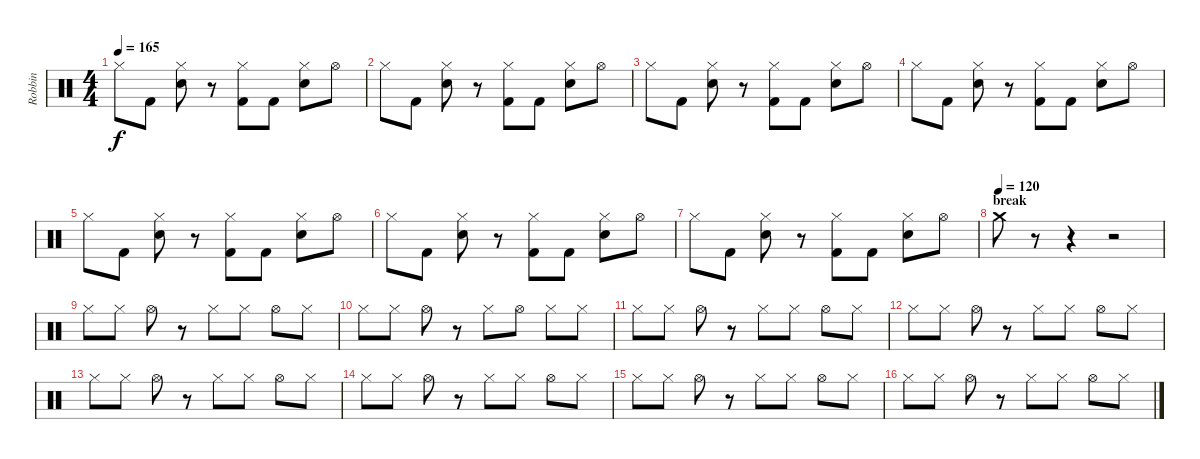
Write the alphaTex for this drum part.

\track ("Robbin" "Robbin") {instrument percussion}
\staff {score}
\articulation defaults
\ts (4 4)
\tempo 165
\clef neutral
\ks c "Hi-Hat (closed)".8{dy f} "Kick (hit) 2".8
("Hi-Hat (closed)" "Snare (hit) 2").8 r.8 ("Hi-Hat (closed)" "Kick (hit) 2").8 "Kick (hit) 2".8 ("Hi-Hat (closed)" "Snare (hit) 2").8 "Hi-Hat (open)".8 |
"Hi-Hat (closed)".8 "Kick (hit) 2".8 ("Hi-Hat (closed)" "Snare (hit) 2").8 r.8 ("Hi-Hat (closed)" "Kick (hit) 2").8 "Kick (hit) 2".8 ("Hi-Hat (closed)" "Snare (hit) 2").8 "Hi-Hat (open)".8 |
"Hi-Hat (closed)".8 "Kick (hit) 2".8 ("Hi-Hat (closed)" "Snare (hit) 2").8 r.8 ("Hi-Hat (closed)" "Kick (hit) 2").8 "Kick (hit) 2".8 ("Hi-Hat (closed)" "Snare (hit) 2").8 "Hi-Hat (open)".8 |
"Hi-Hat (closed)".8 "Kick (hit) 2".8 ("Hi-Hat (closed)" "Snare (hit) 2").8 r.8 ("Hi-Hat (closed)" "Kick (hit) 2").8 "Kick (hit) 2".8 ("Hi-Hat (closed)" "Snare (hit) 2").8 "Hi-Hat (open)".8 |
"Hi-Hat (closed)".8 "Kick (hit) 2".8 ("Hi-Hat (closed)" "Snare (hit) 2").8 r.8 ("Hi-Hat (closed)" "Kick (hit) 2").8 "Kick (hit) 2".8 ("Hi-Hat (closed)" "Snare (hit) 2").8 "Hi-Hat (open)".8 |
"Hi-Hat (closed)".8 "Kick (hit) 2".8 ("Hi-Hat (closed)" "Snare (hit) 2").8 r.8 ("Hi-Hat (closed)" "Kick (hit) 2").8 "Kick (hit) 2".8 ("Hi-Hat (closed)" "Snare (hit) 2").8 "Hi-Hat (open)".8 |
"Hi-Hat (closed)".8 "Kick (hit) 2".8 ("Hi-Hat (closed)" "Snare (hit) 2").8 r.8 ("Hi-Hat (closed)" "Kick (hit) 2").8 "Kick (hit) 2".8 ("Hi-Hat (closed)" "Snare (hit) 2").8 "Hi-Hat (open)".8 |
\section ("" "break")
\tempo (120)
"Crash medium (hit)".8 r.8 r.4 r.2 |
"Hi-Hat (closed)".8 "Hi-Hat (closed)".8 "Hi-Hat (open)".8 r.8 "Hi-Hat (closed)".8 "Hi-Hat (closed)".8 "Hi-Hat (open)".8 "Hi-Hat (closed)".8 |
"Hi-Hat (closed)".8 "Hi-Hat (closed)".8 "Hi-Hat (open)".8 r.8 "Hi-Hat (closed)".8 "Hi-Hat (open)".8 "Hi-Hat (closed)".8 "Hi-Hat (closed)".8 |
"Hi-Hat (closed)".8 "Hi-Hat (closed)".8 "Hi-Hat (open)".8 r.8 "Hi-Hat (closed)".8 "Hi-Hat (closed)".8 "Hi-Hat (open)".8 "Hi-Hat (closed)".8 |
"Hi-Hat (closed)".8 "Hi-Hat (closed)".8 "Hi-Hat (open)".8 r.8 "Hi-Hat (closed)".8 "Hi-Hat (closed)".8 "Hi-Hat (open)".8 "Hi-Hat (closed)".8 |
"Hi-Hat (closed)".8 "Hi-Hat (closed)".8 "Hi-Hat (open)".8 r.8 "Hi-Hat (closed)".8 "Hi-Hat (closed)".8 "Hi-Hat (open)".8 "Hi-Hat (closed)".8 |
"Hi-Hat (closed)".8 "Hi-Hat (closed)".8 "Hi-Hat (open)".8 r.8 "Hi-Hat (closed)".8 "Hi-Hat (closed)".8 "Hi-Hat (open)".8 "Hi-Hat (closed)".8 |
"Hi-Hat (closed)".8 "Hi-Hat (closed)".8 "Hi-Hat (open)".8 r.8 "Hi-Hat (closed)".8 "Hi-Hat (closed)".8 "Hi-Hat (open)".8 "Hi-Hat (closed)".8 |
"Hi-Hat (closed)".8 "Hi-Hat (closed)".8 "Hi-Hat (open)".8 r.8 "Hi-Hat (closed)".8 "Hi-Hat (closed)".8 "Hi-Hat (open)".8 "Hi-Hat (closed)".8
